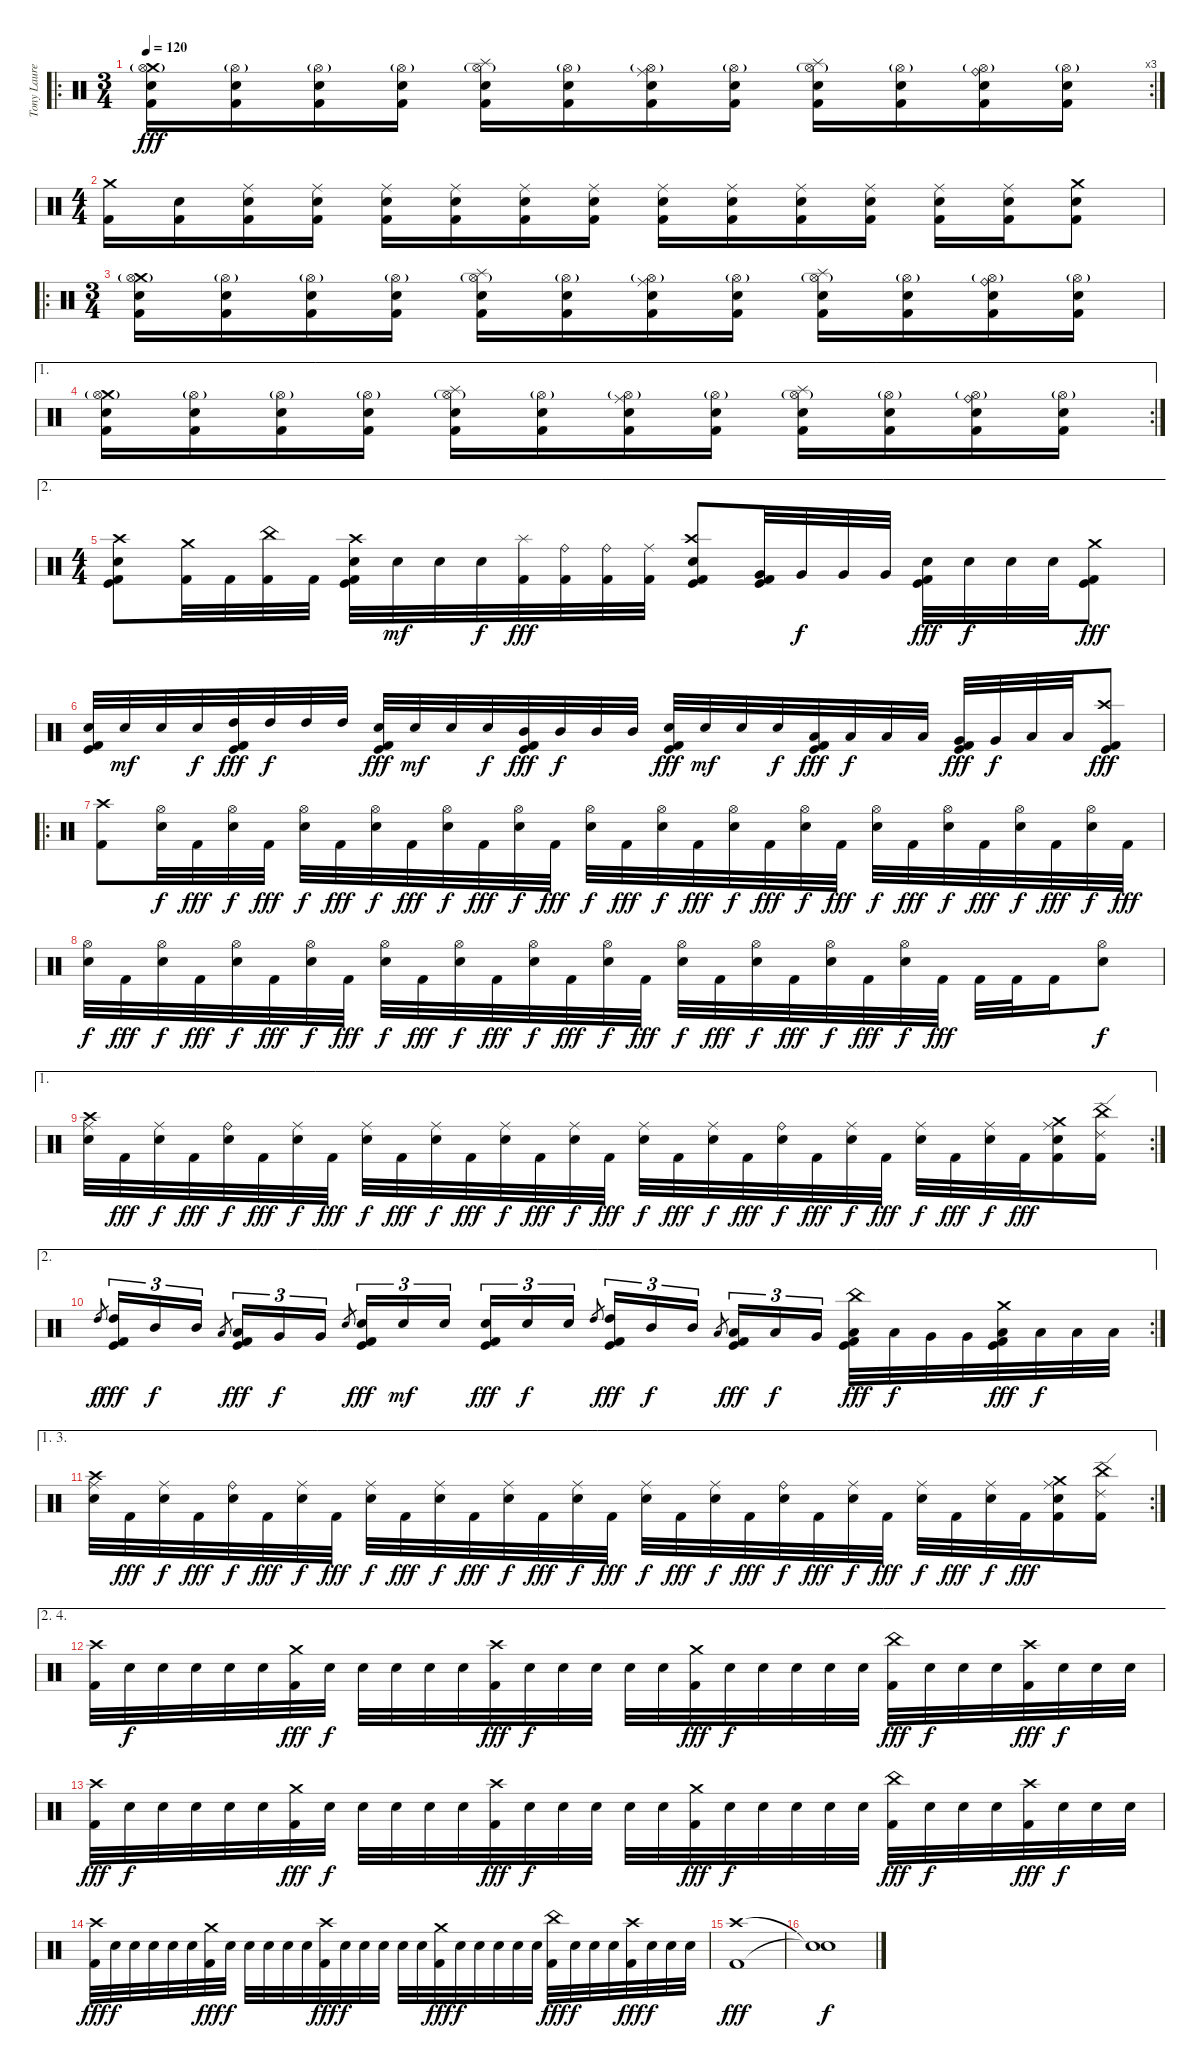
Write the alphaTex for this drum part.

\track ("Tony Laureano" "Tony Laure") {instrument percussion}
\staff {score}
\articulation defaults
\ro
\rc 3
\ts (3 4)
\tempo 120
\clef neutral
\ks c
("Crash medium (hit)" "Hi-Hat (open)"{g} "Snare (hit) 2" "Kick (hit) 2").16{dy fff} ("Hi-Hat (open)"{g} "Snare (hit) 2" "Kick (hit) 2").16 ("Hi-Hat (open)"{g} "Snare (hit) 2" "Kick (hit) 2").16 ("Hi-Hat (open)"{g} "Snare (hit) 2" "Kick (hit) 2").16 ("Splash (hit)" "Hi-Hat (open)"{g} "Snare (hit) 2" "Kick (hit) 2").16 ("Hi-Hat (open)"{g} "Snare (hit) 2" "Kick (hit) 2").16 ("Ride (middle)" "Hi-Hat (open)"{g} "Snare (hit) 2" "Kick (hit) 2").16 ("Hi-Hat (open)"{g} "Snare (hit) 2" "Kick (hit) 2").16 ("Splash (hit)" "Hi-Hat (open)"{g} "Snare (hit) 2" "Kick (hit) 2").16 ("Hi-Hat (open)"{g} "Snare (hit) 2" "Kick (hit) 2").16 ("Ride (bell)" "Hi-Hat (open)"{g} "Snare (hit) 2" "Kick (hit) 2").16 ("Hi-Hat (open)"{g} "Snare (hit) 2" "Kick (hit) 2").16 |
\ts (4 4)
("Crash medium (hit)" "Kick (hit) 2").16 ("Snare (hit) 2" "Kick (hit) 2").16 ("Ride (middle)" "Snare (hit) 2" "Kick (hit) 2").16 ("Ride (middle)" "Snare (hit) 2" "Kick (hit) 2").16 ("Ride (middle)" "Snare (hit) 2" "Kick (hit) 2").16 ("Ride (middle)" "Snare (hit) 2" "Kick (hit) 2").16 ("Ride (middle)" "Snare (hit) 2" "Kick (hit) 2").16 ("Ride (middle)" "Snare (hit) 2" "Kick (hit) 2").16 ("Ride (middle)" "Snare (hit) 2" "Kick (hit) 2").16 ("Ride (middle)" "Snare (hit) 2" "Kick (hit) 2").16 ("Ride (middle)" "Snare (hit) 2" "Kick (hit) 2").16 ("Ride (middle)" "Snare (hit) 2" "Kick (hit) 2").16 ("Ride (middle)" "Snare (hit) 2" "Kick (hit) 2").16 ("Ride (middle)" "Snare (hit) 2" "Kick (hit) 2").16 ("Crash medium (hit)" "Snare (hit) 2" "Kick (hit) 2").8 |
\ro
\ts (3 4)
("Crash medium (hit)" "Hi-Hat (open)"{g} "Snare (hit) 2" "Kick (hit) 2").16 ("Hi-Hat (open)"{g} "Snare (hit) 2" "Kick (hit) 2").16 ("Hi-Hat (open)"{g} "Snare (hit) 2" "Kick (hit) 2").16 ("Hi-Hat (open)"{g} "Snare (hit) 2" "Kick (hit) 2").16 ("Splash (hit)" "Hi-Hat (open)"{g} "Snare (hit) 2" "Kick (hit) 2").16 ("Hi-Hat (open)"{g} "Snare (hit) 2" "Kick (hit) 2").16 ("Ride (middle)" "Hi-Hat (open)"{g} "Snare (hit) 2" "Kick (hit) 2").16 ("Hi-Hat (open)"{g} "Snare (hit) 2" "Kick (hit) 2").16 ("Splash (hit)" "Hi-Hat (open)"{g} "Snare (hit) 2" "Kick (hit) 2").16 ("Hi-Hat (open)"{g} "Snare (hit) 2" "Kick (hit) 2").16 ("Ride (bell)" "Hi-Hat (open)"{g} "Snare (hit) 2" "Kick (hit) 2").16 ("Hi-Hat (open)"{g} "Snare (hit) 2" "Kick (hit) 2").16 |
\ae 1
\rc 2
("Crash medium (hit)" "Hi-Hat (open)"{g} "Snare (hit) 2" "Kick (hit) 2").16 ("Hi-Hat (open)"{g} "Snare (hit) 2" "Kick (hit) 2").16 ("Hi-Hat (open)"{g} "Snare (hit) 2" "Kick (hit) 2").16 ("Hi-Hat (open)"{g} "Snare (hit) 2" "Kick (hit) 2").16 ("Splash (hit)" "Hi-Hat (open)"{g} "Snare (hit) 2" "Kick (hit) 2").16 ("Hi-Hat (open)"{g} "Snare (hit) 2" "Kick (hit) 2").16 ("Ride (middle)" "Hi-Hat (open)"{g} "Snare (hit) 2" "Kick (hit) 2").16 ("Hi-Hat (open)"{g} "Snare (hit) 2" "Kick (hit) 2").16 ("Splash (hit)" "Hi-Hat (open)"{g} "Snare (hit) 2" "Kick (hit) 2").16 ("Hi-Hat (open)"{g} "Snare (hit) 2" "Kick (hit) 2").16 ("Ride (bell)" "Hi-Hat (open)"{g} "Snare (hit) 2" "Kick (hit) 2").16 ("Hi-Hat (open)"{g} "Snare (hit) 2" "Kick (hit) 2").16 |
\ae 2
\ts (4 4)
("Crash high (hit)" "Snare (hit) 2" "Kick (hit)" "Kick (hit) 2").8 ("Crash medium (hit)" "Kick (hit) 2").32 "Kick (hit) 2".32 ("China (hit)" "Kick (hit) 2").32 "Kick (hit) 2".32 ("Crash high (hit)" "Snare (hit) 2" "Kick (hit)" "Kick (hit) 2").32 "Snare (hit) 2".32{dy mf} "Snare (hit) 2".32 "Snare (hit) 2".32{dy f} ("Splash (hit)" "Kick (hit) 2").32{dy fff} ("Ride (bell)" "Kick (hit) 2").32 ("Ride (bell)" "Kick (hit) 2").32 ("Ride (middle)" "Kick (hit) 2").32 ("Crash high (hit)" "Snare (hit) 2" "Kick (hit)" "Kick (hit) 2").8 ("Very Low Tom (hit)" "Kick (hit)" "Kick (hit) 2").32 "Very Low Tom (hit)".32{dy f} "Very Low Tom (hit)".32 "Very Low Tom (hit)".32 ("Snare (hit) 2" "Kick (hit)" "Kick (hit) 2").32{dy fff} "Snare (hit) 2".32{dy f} "Snare (hit) 2".32 "Snare (hit) 2".32 ("Crash medium (hit)" "Kick (hit)" "Kick (hit) 2").8{dy fff} |
("Snare (hit) 2" "Kick (hit)" "Kick (hit) 2").32 "Snare (hit) 2".32{dy mf} "Snare (hit) 2".32 "Snare (hit) 2".32{dy f} ("High Tom (hit)" "Kick (hit)" "Kick (hit) 2").32{dy fff} "High Tom (hit)".32{dy f} "High Tom (hit)".32 "High Tom (hit)".32 ("Snare (hit) 2" "Kick (hit)" "Kick (hit) 2").32{dy fff} "Snare (hit) 2".32{dy mf} "Snare (hit) 2".32 "Snare (hit) 2".32{dy f} ("Mid Tom (hit)" "Kick (hit)" "Kick (hit) 2").32{dy fff} "Mid Tom (hit)".32{dy f} "Mid Tom (hit)".32 "Mid Tom (hit)".32 ("Snare (hit) 2" "Kick (hit)" "Kick (hit) 2").32{dy fff} "Snare (hit) 2".32{dy mf} "Snare (hit) 2".32 "Snare (hit) 2".32{dy f} ("Low Tom (hit)" "Kick (hit)" "Kick (hit) 2").32{dy fff} "Low Tom (hit)".32{dy f} "Low Tom (hit)".32 "Low Tom (hit)".32 ("Very Low Tom (hit)" "Kick (hit)" "Kick (hit) 2").32{dy fff} "Very Low Tom (hit)".32{dy f} "Low Floor Tom (hit)".32 "Low Floor Tom (hit)".32 ("Crash high (hit)" "Kick (hit)" "Kick (hit) 2").8{dy fff} |
\ro
("Crash high (hit)" "Kick (hit) 2").8 ("Hi-Hat (open)" "Snare (hit) 2").32{dy f} "Kick (hit) 2".32{dy fff} ("Hi-Hat (open)" "Snare (hit) 2").32{dy f} "Kick (hit) 2".32{dy fff} ("Hi-Hat (open)" "Snare (hit) 2").32{dy f} "Kick (hit) 2".32{dy fff} ("Hi-Hat (open)" "Snare (hit) 2").32{dy f} "Kick (hit) 2".32{dy fff} ("Hi-Hat (open)" "Snare (hit) 2").32{dy f} "Kick (hit) 2".32{dy fff} ("Hi-Hat (open)" "Snare (hit) 2").32{dy f} "Kick (hit) 2".32{dy fff} ("Hi-Hat (open)" "Snare (hit) 2").32{dy f} "Kick (hit) 2".32{dy fff} ("Hi-Hat (open)" "Snare (hit) 2").32{dy f} "Kick (hit) 2".32{dy fff} ("Hi-Hat (open)" "Snare (hit) 2").32{dy f} "Kick (hit) 2".32{dy fff} ("Hi-Hat (open)" "Snare (hit) 2").32{dy f} "Kick (hit) 2".32{dy fff} ("Hi-Hat (open)" "Snare (hit) 2").32{dy f} "Kick (hit) 2".32{dy fff} ("Hi-Hat (open)" "Snare (hit) 2").32{dy f} "Kick (hit) 2".32{dy fff} ("Hi-Hat (open)" "Snare (hit) 2").32{dy f} "Kick (hit) 2".32{dy fff} ("Hi-Hat (open)" "Snare (hit) 2").32{dy f} "Kick (hit) 2".32{dy fff} |
("Hi-Hat (open)" "Snare (hit) 2").32{dy f} "Kick (hit) 2".32{dy fff} ("Hi-Hat (open)" "Snare (hit) 2").32{dy f} "Kick (hit) 2".32{dy fff} ("Hi-Hat (open)" "Snare (hit) 2").32{dy f} "Kick (hit) 2".32{dy fff} ("Hi-Hat (open)" "Snare (hit) 2").32{dy f} "Kick (hit) 2".32{dy fff} ("Hi-Hat (open)" "Snare (hit) 2").32{dy f} "Kick (hit) 2".32{dy fff} ("Hi-Hat (open)" "Snare (hit) 2").32{dy f} "Kick (hit) 2".32{dy fff} ("Hi-Hat (open)" "Snare (hit) 2").32{dy f} "Kick (hit) 2".32{dy fff} ("Hi-Hat (open)" "Snare (hit) 2").32{dy f} "Kick (hit) 2".32{dy fff} ("Hi-Hat (open)" "Snare (hit) 2").32{dy f} "Kick (hit) 2".32{dy fff} ("Hi-Hat (open)" "Snare (hit) 2").32{dy f} "Kick (hit) 2".32{dy fff} ("Hi-Hat (open)" "Snare (hit) 2").32{dy f} "Kick (hit) 2".32{dy fff} ("Hi-Hat (open)" "Snare (hit) 2").32{dy f} "Kick (hit) 2".32{dy fff} "Kick (hit) 2".32 "Kick (hit) 2".32 "Kick (hit) 2".16 ("Hi-Hat (open)" "Snare (hit) 2").8{dy f} |
\ae 1
\rc 2
("Crash high (hit)" "Ride (middle)" "Snare (hit) 2").32 "Kick (hit) 2".32{dy fff} ("Ride (middle)" "Snare (hit) 2").32{dy f} "Kick (hit) 2".32{dy fff} ("Ride (bell)" "Snare (hit) 2").32{dy f} "Kick (hit) 2".32{dy fff} ("Ride (middle)" "Snare (hit) 2").32{dy f} "Kick (hit) 2".32{dy fff} ("Ride (middle)" "Snare (hit) 2").32{dy f} "Kick (hit) 2".32{dy fff} ("Ride (middle)" "Snare (hit) 2").32{dy f} "Kick (hit) 2".32{dy fff} ("Ride (middle)" "Snare (hit) 2").32{dy f} "Kick (hit) 2".32{dy fff} ("Ride (middle)" "Snare (hit) 2").32{dy f} "Kick (hit) 2".32{dy fff} ("Ride (middle)" "Snare (hit) 2").32{dy f} "Kick (hit) 2".32{dy fff} ("Ride (middle)" "Snare (hit) 2").32{dy f} "Kick (hit) 2".32{dy fff} ("Ride (bell)" "Snare (hit) 2").32{dy f} "Kick (hit) 2".32{dy fff} ("Ride (middle)" "Snare (hit) 2").32{dy f} "Kick (hit) 2".32{dy fff} ("Ride (middle)" "Snare (hit) 2").32{dy f} "Kick (hit) 2".32{dy fff} ("Ride (middle)" "Snare (hit) 2").32{dy f} "Kick (hit) 2".32{dy fff} ("Crash medium (hit)" "Ride (middle)" "Snare (hit) 2" "Kick (hit) 2").16 ("China (hit)" "Ride (edge) 2" "Kick (hit) 2").16 |
\ae 2
\rc 2 "High Tom (hit)".8{gr dy f}
("High Tom (hit)" "Kick (hit)" "Kick (hit) 2").16{tu (3 2) dy fff} "Mid Tom (hit)".16{tu (3 2) dy f} "Mid Tom (hit)".16{tu (3 2)} "Low Tom (hit)".8{gr} ("Low Tom (hit)" "Kick (hit)" "Kick (hit) 2").16{tu (3 2) dy fff} "Very Low Tom (hit)".16{tu (3 2) dy f} "Very Low Tom (hit)".16{tu (3 2)} "Snare (hit) 2".8{gr} ("Snare (hit) 2" "Kick (hit)" "Kick (hit) 2").16{tu (3 2) dy fff} "Snare (hit) 2".16{tu (3 2) dy mf} "Snare (hit) 2".16{tu (3 2)} ("Snare (hit) 2" "Kick (hit)" "Kick (hit) 2").16{tu (3 2) dy fff} "Snare (hit) 2".16{tu (3 2) dy f} "Snare (hit) 2".16{tu (3 2)} "High Tom (hit)".8{gr} ("High Tom (hit)" "Kick (hit)" "Kick (hit) 2").16{tu (3 2) dy fff} "Mid Tom (hit)".16{tu (3 2) dy f} "Mid Tom (hit)".16{tu (3 2)} "Low Tom (hit)".8{gr} ("Low Tom (hit)" "Kick (hit)" "Kick (hit) 2").16{tu (3 2) dy fff} "Low Tom (hit)".16{tu (3 2) dy f} "Very Low Tom (hit)".16{tu (3 2)} ("China (hit)" "Low Tom (hit)" "Kick (hit)" "Kick (hit) 2").32{dy fff} "Low Tom (hit)".32{dy f} "Very Low Tom (hit)".32 "Very Low Tom (hit)".32 ("Crash medium (hit)" "Low Floor Tom (hit)" "Kick (hit)" "Kick (hit) 2").32{dy fff} "Low Floor Tom (hit)".32{dy f} "Low Floor Tom (hit)".32 "Low Floor Tom (hit)".32 |
\ae (1 3)
\rc 2
("Crash high (hit)" "Ride (middle)" "Snare (hit) 2").32 "Kick (hit) 2".32{dy fff} ("Ride (middle)" "Snare (hit) 2").32{dy f} "Kick (hit) 2".32{dy fff} ("Ride (bell)" "Snare (hit) 2").32{dy f} "Kick (hit) 2".32{dy fff} ("Ride (middle)" "Snare (hit) 2").32{dy f} "Kick (hit) 2".32{dy fff} ("Ride (middle)" "Snare (hit) 2").32{dy f} "Kick (hit) 2".32{dy fff} ("Ride (middle)" "Snare (hit) 2").32{dy f} "Kick (hit) 2".32{dy fff} ("Ride (middle)" "Snare (hit) 2").32{dy f} "Kick (hit) 2".32{dy fff} ("Ride (middle)" "Snare (hit) 2").32{dy f} "Kick (hit) 2".32{dy fff} ("Ride (middle)" "Snare (hit) 2").32{dy f} "Kick (hit) 2".32{dy fff} ("Ride (middle)" "Snare (hit) 2").32{dy f} "Kick (hit) 2".32{dy fff} ("Ride (bell)" "Snare (hit) 2").32{dy f} "Kick (hit) 2".32{dy fff} ("Ride (middle)" "Snare (hit) 2").32{dy f} "Kick (hit) 2".32{dy fff} ("Ride (middle)" "Snare (hit) 2").32{dy f} "Kick (hit) 2".32{dy fff} ("Ride (middle)" "Snare (hit) 2").32{dy f} "Kick (hit) 2".32{dy fff} ("Crash medium (hit)" "Ride (middle)" "Snare (hit) 2" "Kick (hit) 2").16 ("China (hit)" "Ride (edge) 2" "Kick (hit) 2").16 |
\ae (2 4)
("Crash high (hit)" "Kick (hit) 2").32 "Snare (hit) 2".32{dy f} "Snare (hit) 2".32 "Snare (hit) 2".32 "Snare (hit) 2".32 "Snare (hit) 2".32 ("Crash medium (hit)" "Kick (hit) 2").32{dy fff} "Snare (hit) 2".32{dy f} "Snare (hit) 2".32 "Snare (hit) 2".32 "Snare (hit) 2".32 "Snare (hit) 2".32 ("Crash high (hit)" "Kick (hit) 2").32{dy fff} "Snare (hit) 2".32{dy f} "Snare (hit) 2".32 "Snare (hit) 2".32 "Snare (hit) 2".32 "Snare (hit) 2".32 ("Crash medium (hit)" "Kick (hit) 2").32{dy fff} "Snare (hit) 2".32{dy f} "Snare (hit) 2".32 "Snare (hit) 2".32 "Snare (hit) 2".32 "Snare (hit) 2".32 ("China (hit)" "Kick (hit) 2").32{dy fff} "Snare (hit) 2".32{dy f} "Snare (hit) 2".32 "Snare (hit) 2".32 ("Crash high (hit)" "Kick (hit) 2").32{dy fff} "Snare (hit) 2".32{dy f} "Snare (hit) 2".32 "Snare (hit) 2".32 |
("Crash high (hit)" "Kick (hit) 2").32{dy fff} "Snare (hit) 2".32{dy f} "Snare (hit) 2".32 "Snare (hit) 2".32 "Snare (hit) 2".32 "Snare (hit) 2".32 ("Crash medium (hit)" "Kick (hit) 2").32{dy fff} "Snare (hit) 2".32{dy f} "Snare (hit) 2".32 "Snare (hit) 2".32 "Snare (hit) 2".32 "Snare (hit) 2".32 ("Crash high (hit)" "Kick (hit) 2").32{dy fff} "Snare (hit) 2".32{dy f} "Snare (hit) 2".32 "Snare (hit) 2".32 "Snare (hit) 2".32 "Snare (hit) 2".32 ("Crash medium (hit)" "Kick (hit) 2").32{dy fff} "Snare (hit) 2".32{dy f} "Snare (hit) 2".32 "Snare (hit) 2".32 "Snare (hit) 2".32 "Snare (hit) 2".32 ("China (hit)" "Kick (hit) 2").32{dy fff} "Snare (hit) 2".32{dy f} "Snare (hit) 2".32 "Snare (hit) 2".32 ("Crash high (hit)" "Kick (hit) 2").32{dy fff} "Snare (hit) 2".32{dy f} "Snare (hit) 2".32 "Snare (hit) 2".32 |
("Crash high (hit)" "Kick (hit) 2").32{dy fff} "Snare (hit) 2".32{dy f} "Snare (hit) 2".32 "Snare (hit) 2".32 "Snare (hit) 2".32 "Snare (hit) 2".32 ("Crash medium (hit)" "Kick (hit) 2").32{dy fff} "Snare (hit) 2".32{dy f} "Snare (hit) 2".32 "Snare (hit) 2".32 "Snare (hit) 2".32 "Snare (hit) 2".32 ("Crash high (hit)" "Kick (hit) 2").32{dy fff} "Snare (hit) 2".32{dy f} "Snare (hit) 2".32 "Snare (hit) 2".32 "Snare (hit) 2".32 "Snare (hit) 2".32 ("Crash medium (hit)" "Kick (hit) 2").32{dy fff} "Snare (hit) 2".32{dy f} "Snare (hit) 2".32 "Snare (hit) 2".32 "Snare (hit) 2".32 "Snare (hit) 2".32 ("China (hit)" "Kick (hit) 2").32{dy fff} "Snare (hit) 2".32{dy f} "Snare (hit) 2".32 "Snare (hit) 2".32 ("Crash high (hit)" "Kick (hit) 2").32{dy fff} "Snare (hit) 2".32{dy f} "Snare (hit) 2".32 "Snare (hit) 2".32 |
("Crash high (hit)" "Kick (hit) 2").1{dy fff} |
("Snare (hit)"{t} "Snare (hit)"{t}).1{dy f}
